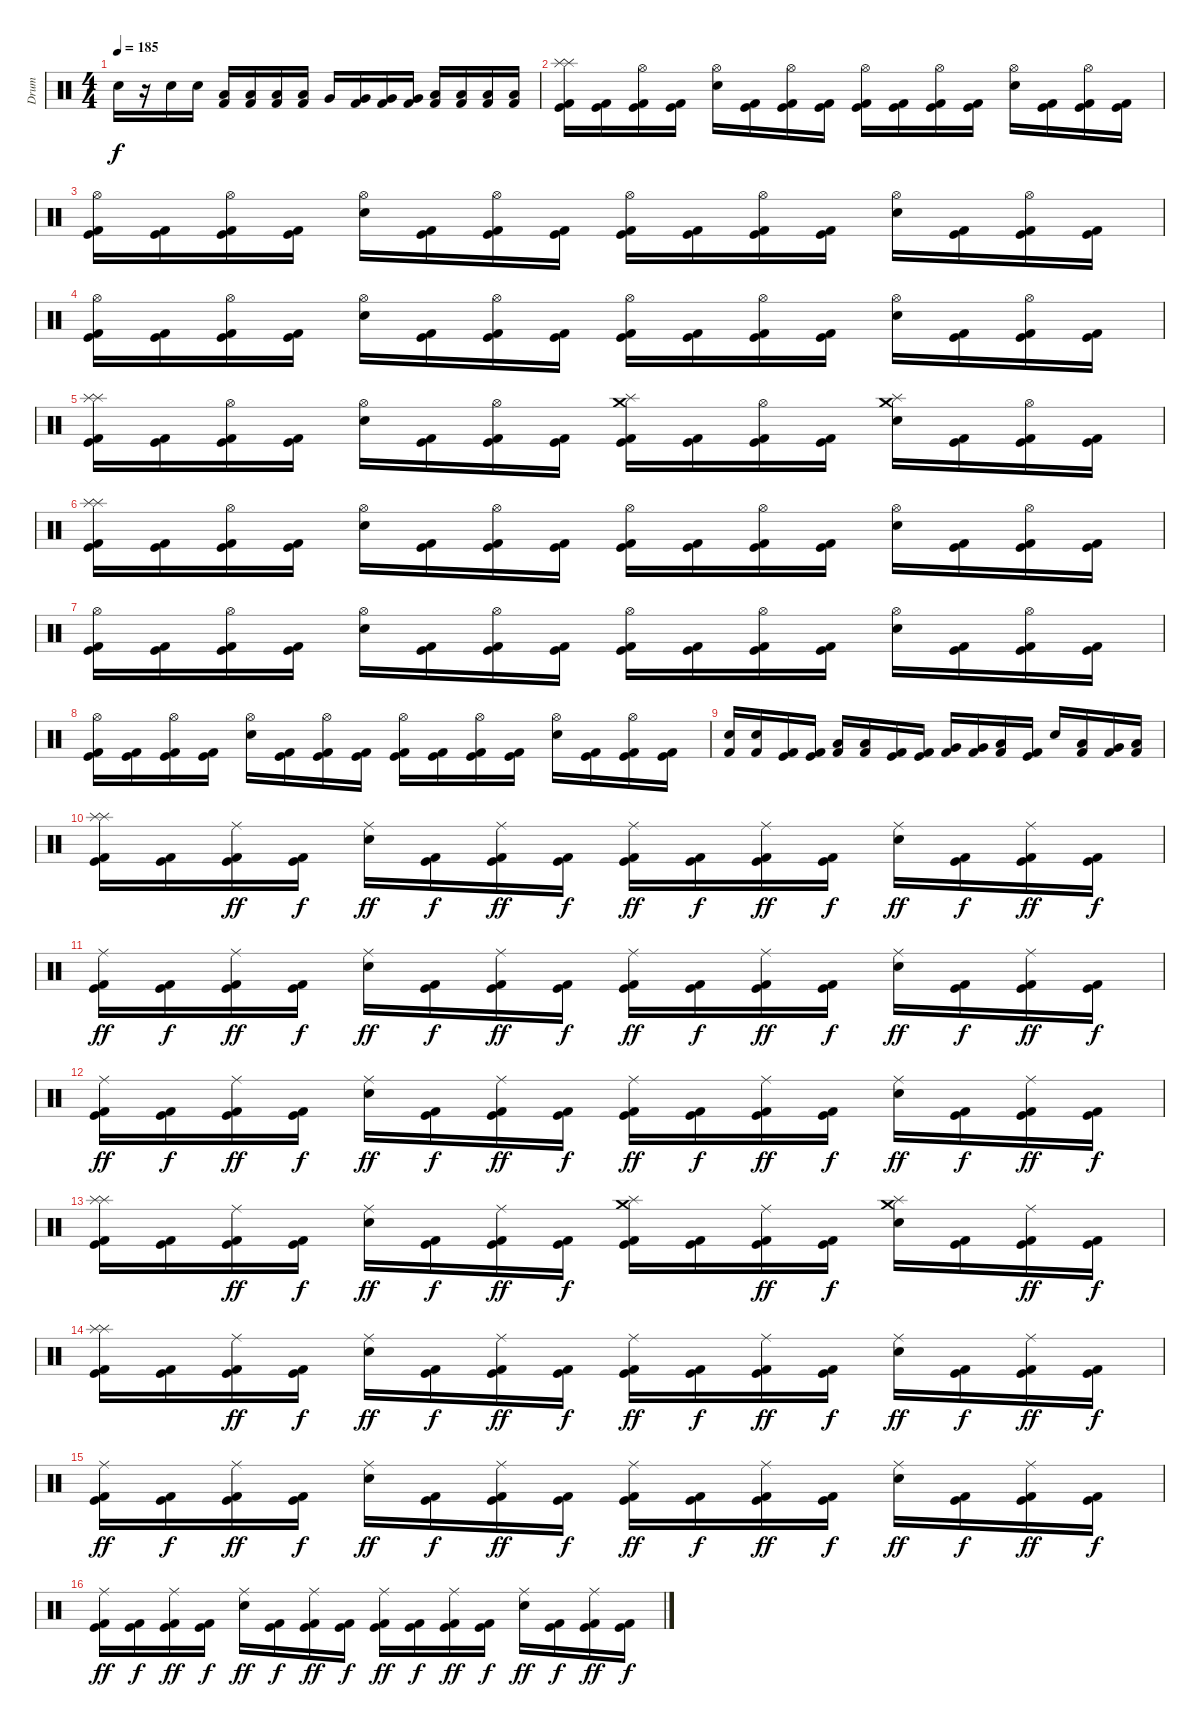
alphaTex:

\track ("Drum" "Drum") {instrument percussion}
\staff {score}
\articulation defaults
\ts (4 4)
\tempo 185
\clef neutral
\ks c "Snare (hit) 2".16{dy f}
r.16 "Snare (hit) 2".16 "Snare (hit) 2".16 ("Low Tom (hit)" "Kick (hit) 2").16 ("Low Tom (hit)" "Kick (hit) 2").16 ("Low Tom (hit)" "Kick (hit) 2").16 ("Low Tom (hit)" "Kick (hit) 2").16 "Very Low Tom (hit)".16 ("Very Low Tom (hit)" "Kick (hit) 2").16 ("Very Low Tom (hit)" "Kick (hit) 2").16 ("Very Low Tom (hit)" "Kick (hit) 2").16 ("Low Floor Tom (hit)" "Kick (hit) 2").16 ("Low Floor Tom (hit)" "Kick (hit) 2").16 ("Low Floor Tom (hit)" "Kick (hit) 2").16 ("Low Floor Tom (hit)" "Kick (hit) 2").16 |
("Splash (hit)" "Splash (hit)" "Kick (hit)" "Kick (hit) 2").16 ("Kick (hit)" "Kick (hit) 2").16 ("Hi-Hat (open)" "Kick (hit)" "Kick (hit) 2").16 ("Kick (hit)" "Kick (hit) 2").16 ("Hi-Hat (open)" "Snare (hit) 2").16 ("Kick (hit)" "Kick (hit) 2").16 ("Hi-Hat (open)" "Kick (hit)" "Kick (hit) 2").16 ("Kick (hit)" "Kick (hit) 2").16 ("Hi-Hat (open)" "Kick (hit)" "Kick (hit) 2").16 ("Kick (hit)" "Kick (hit) 2").16 ("Hi-Hat (open)" "Kick (hit)" "Kick (hit) 2").16 ("Kick (hit)" "Kick (hit) 2").16 ("Hi-Hat (open)" "Snare (hit) 2").16 ("Kick (hit)" "Kick (hit) 2").16 ("Hi-Hat (open)" "Kick (hit)" "Kick (hit) 2").16 ("Kick (hit)" "Kick (hit) 2").16 |
("Hi-Hat (open)" "Kick (hit)" "Kick (hit) 2").16 ("Kick (hit)" "Kick (hit) 2").16 ("Hi-Hat (open)" "Kick (hit)" "Kick (hit) 2").16 ("Kick (hit)" "Kick (hit) 2").16 ("Hi-Hat (open)" "Snare (hit) 2").16 ("Kick (hit)" "Kick (hit) 2").16 ("Hi-Hat (open)" "Kick (hit)" "Kick (hit) 2").16 ("Kick (hit)" "Kick (hit) 2").16 ("Hi-Hat (open)" "Kick (hit)" "Kick (hit) 2").16 ("Kick (hit)" "Kick (hit) 2").16 ("Hi-Hat (open)" "Kick (hit)" "Kick (hit) 2").16 ("Kick (hit)" "Kick (hit) 2").16 ("Hi-Hat (open)" "Snare (hit) 2").16 ("Kick (hit)" "Kick (hit) 2").16 ("Hi-Hat (open)" "Kick (hit)" "Kick (hit) 2").16 ("Kick (hit)" "Kick (hit) 2").16 |
("Hi-Hat (open)" "Kick (hit)" "Kick (hit) 2").16 ("Kick (hit)" "Kick (hit) 2").16 ("Hi-Hat (open)" "Kick (hit)" "Kick (hit) 2").16 ("Kick (hit)" "Kick (hit) 2").16 ("Hi-Hat (open)" "Snare (hit) 2").16 ("Kick (hit)" "Kick (hit) 2").16 ("Hi-Hat (open)" "Kick (hit)" "Kick (hit) 2").16 ("Kick (hit)" "Kick (hit) 2").16 ("Hi-Hat (open)" "Kick (hit)" "Kick (hit) 2").16 ("Kick (hit)" "Kick (hit) 2").16 ("Hi-Hat (open)" "Kick (hit)" "Kick (hit) 2").16 ("Kick (hit)" "Kick (hit) 2").16 ("Hi-Hat (open)" "Snare (hit) 2").16 ("Kick (hit)" "Kick (hit) 2").16 ("Hi-Hat (open)" "Kick (hit)" "Kick (hit) 2").16 ("Kick (hit)" "Kick (hit) 2").16 |
("Splash (hit)" "Splash (hit)" "Kick (hit)" "Kick (hit) 2").16 ("Kick (hit)" "Kick (hit) 2").16 ("Hi-Hat (open)" "Kick (hit)" "Kick (hit) 2").16 ("Kick (hit)" "Kick (hit) 2").16 ("Hi-Hat (open)" "Snare (hit) 2").16 ("Kick (hit)" "Kick (hit) 2").16 ("Hi-Hat (open)" "Kick (hit)" "Kick (hit) 2").16 ("Kick (hit)" "Kick (hit) 2").16 ("Crash medium (hit)" "Splash (hit)" "Kick (hit)" "Kick (hit) 2").16 ("Kick (hit)" "Kick (hit) 2").16 ("Hi-Hat (open)" "Kick (hit)" "Kick (hit) 2").16 ("Kick (hit)" "Kick (hit) 2").16 ("Crash medium (hit)" "Splash (hit)" "Snare (hit) 2").16 ("Kick (hit)" "Kick (hit) 2").16 ("Hi-Hat (open)" "Kick (hit)" "Kick (hit) 2").16 ("Kick (hit)" "Kick (hit) 2").16 |
("Splash (hit)" "Splash (hit)" "Kick (hit)" "Kick (hit) 2").16 ("Kick (hit)" "Kick (hit) 2").16 ("Hi-Hat (open)" "Kick (hit)" "Kick (hit) 2").16 ("Kick (hit)" "Kick (hit) 2").16 ("Hi-Hat (open)" "Snare (hit) 2").16 ("Kick (hit)" "Kick (hit) 2").16 ("Hi-Hat (open)" "Kick (hit)" "Kick (hit) 2").16 ("Kick (hit)" "Kick (hit) 2").16 ("Hi-Hat (open)" "Kick (hit)" "Kick (hit) 2").16 ("Kick (hit)" "Kick (hit) 2").16 ("Hi-Hat (open)" "Kick (hit)" "Kick (hit) 2").16 ("Kick (hit)" "Kick (hit) 2").16 ("Hi-Hat (open)" "Snare (hit) 2").16 ("Kick (hit)" "Kick (hit) 2").16 ("Hi-Hat (open)" "Kick (hit)" "Kick (hit) 2").16 ("Kick (hit)" "Kick (hit) 2").16 |
("Hi-Hat (open)" "Kick (hit)" "Kick (hit) 2").16 ("Kick (hit)" "Kick (hit) 2").16 ("Hi-Hat (open)" "Kick (hit)" "Kick (hit) 2").16 ("Kick (hit)" "Kick (hit) 2").16 ("Hi-Hat (open)" "Snare (hit) 2").16 ("Kick (hit)" "Kick (hit) 2").16 ("Hi-Hat (open)" "Kick (hit)" "Kick (hit) 2").16 ("Kick (hit)" "Kick (hit) 2").16 ("Hi-Hat (open)" "Kick (hit)" "Kick (hit) 2").16 ("Kick (hit)" "Kick (hit) 2").16 ("Hi-Hat (open)" "Kick (hit)" "Kick (hit) 2").16 ("Kick (hit)" "Kick (hit) 2").16 ("Hi-Hat (open)" "Snare (hit) 2").16 ("Kick (hit)" "Kick (hit) 2").16 ("Hi-Hat (open)" "Kick (hit)" "Kick (hit) 2").16 ("Kick (hit)" "Kick (hit) 2").16 |
("Hi-Hat (open)" "Kick (hit)" "Kick (hit) 2").16 ("Kick (hit)" "Kick (hit) 2").16 ("Hi-Hat (open)" "Kick (hit)" "Kick (hit) 2").16 ("Kick (hit)" "Kick (hit) 2").16 ("Hi-Hat (open)" "Snare (hit) 2").16 ("Kick (hit)" "Kick (hit) 2").16 ("Hi-Hat (open)" "Kick (hit)" "Kick (hit) 2").16 ("Kick (hit)" "Kick (hit) 2").16 ("Hi-Hat (open)" "Kick (hit)" "Kick (hit) 2").16 ("Kick (hit)" "Kick (hit) 2").16 ("Hi-Hat (open)" "Kick (hit)" "Kick (hit) 2").16 ("Kick (hit)" "Kick (hit) 2").16 ("Hi-Hat (open)" "Snare (hit) 2").16 ("Kick (hit)" "Kick (hit) 2").16 ("Hi-Hat (open)" "Kick (hit)" "Kick (hit) 2").16 ("Kick (hit)" "Kick (hit) 2").16 |
("Snare (hit) 2" "Kick (hit) 2").16 ("Snare (hit) 2" "Kick (hit) 2").16 ("Kick (hit)" "Kick (hit) 2").16 ("Kick (hit)" "Kick (hit) 2").16 ("Low Tom (hit)" "Kick (hit) 2").16 ("Low Tom (hit)" "Kick (hit) 2").16 ("Kick (hit)" "Kick (hit) 2").16 ("Kick (hit)" "Kick (hit) 2").16 ("Very Low Tom (hit)" "Kick (hit) 2").16 ("Very Low Tom (hit)" "Kick (hit) 2").16 ("Low Floor Tom (hit)" "Kick (hit) 2").16 ("Kick (hit)" "Kick (hit) 2").16 "Snare (hit) 2".16 ("Low Tom (hit)" "Kick (hit) 2").16 ("Very Low Tom (hit)" "Kick (hit) 2").16 ("Low Floor Tom (hit)" "Kick (hit) 2").16 |
("Splash (hit)" "Splash (hit)" "Kick (hit)" "Kick (hit) 2").16 ("Kick (hit)" "Kick (hit) 2").16 ("Ride (middle)" "Kick (hit)" "Kick (hit) 2").16{dy ff} ("Kick (hit)" "Kick (hit) 2").16{dy f} ("Ride (middle)" "Snare (hit) 2").16{dy ff} ("Kick (hit)" "Kick (hit) 2").16{dy f} ("Ride (middle)" "Kick (hit)" "Kick (hit) 2").16{dy ff} ("Kick (hit)" "Kick (hit) 2").16{dy f} ("Ride (middle)" "Kick (hit)" "Kick (hit) 2").16{dy ff} ("Kick (hit)" "Kick (hit) 2").16{dy f} ("Ride (middle)" "Kick (hit)" "Kick (hit) 2").16{dy ff} ("Kick (hit)" "Kick (hit) 2").16{dy f} ("Ride (middle)" "Snare (hit) 2").16{dy ff} ("Kick (hit)" "Kick (hit) 2").16{dy f} ("Ride (middle)" "Kick (hit)" "Kick (hit) 2").16{dy ff} ("Kick (hit)" "Kick (hit) 2").16{dy f} |
("Ride (middle)" "Kick (hit)" "Kick (hit) 2").16{dy ff} ("Kick (hit)" "Kick (hit) 2").16{dy f} ("Ride (middle)" "Kick (hit)" "Kick (hit) 2").16{dy ff} ("Kick (hit)" "Kick (hit) 2").16{dy f} ("Ride (middle)" "Snare (hit) 2").16{dy ff} ("Kick (hit)" "Kick (hit) 2").16{dy f} ("Ride (middle)" "Kick (hit)" "Kick (hit) 2").16{dy ff} ("Kick (hit)" "Kick (hit) 2").16{dy f} ("Ride (middle)" "Kick (hit)" "Kick (hit) 2").16{dy ff} ("Kick (hit)" "Kick (hit) 2").16{dy f} ("Ride (middle)" "Kick (hit)" "Kick (hit) 2").16{dy ff} ("Kick (hit)" "Kick (hit) 2").16{dy f} ("Ride (middle)" "Snare (hit) 2").16{dy ff} ("Kick (hit)" "Kick (hit) 2").16{dy f} ("Ride (middle)" "Kick (hit)" "Kick (hit) 2").16{dy ff} ("Kick (hit)" "Kick (hit) 2").16{dy f} |
("Ride (middle)" "Kick (hit)" "Kick (hit) 2").16{dy ff} ("Kick (hit)" "Kick (hit) 2").16{dy f} ("Ride (middle)" "Kick (hit)" "Kick (hit) 2").16{dy ff} ("Kick (hit)" "Kick (hit) 2").16{dy f} ("Ride (middle)" "Snare (hit) 2").16{dy ff} ("Kick (hit)" "Kick (hit) 2").16{dy f} ("Ride (middle)" "Kick (hit)" "Kick (hit) 2").16{dy ff} ("Kick (hit)" "Kick (hit) 2").16{dy f} ("Ride (middle)" "Kick (hit)" "Kick (hit) 2").16{dy ff} ("Kick (hit)" "Kick (hit) 2").16{dy f} ("Ride (middle)" "Kick (hit)" "Kick (hit) 2").16{dy ff} ("Kick (hit)" "Kick (hit) 2").16{dy f} ("Ride (middle)" "Snare (hit) 2").16{dy ff} ("Kick (hit)" "Kick (hit) 2").16{dy f} ("Ride (middle)" "Kick (hit)" "Kick (hit) 2").16{dy ff} ("Kick (hit)" "Kick (hit) 2").16{dy f} |
("Splash (hit)" "Splash (hit)" "Kick (hit)" "Kick (hit) 2").16 ("Kick (hit)" "Kick (hit) 2").16 ("Ride (middle)" "Kick (hit)" "Kick (hit) 2").16{dy ff} ("Kick (hit)" "Kick (hit) 2").16{dy f} ("Ride (middle)" "Snare (hit) 2").16{dy ff} ("Kick (hit)" "Kick (hit) 2").16{dy f} ("Ride (middle)" "Kick (hit)" "Kick (hit) 2").16{dy ff} ("Kick (hit)" "Kick (hit) 2").16{dy f} ("Crash medium (hit)" "Splash (hit)" "Kick (hit)" "Kick (hit) 2").16 ("Kick (hit)" "Kick (hit) 2").16 ("Ride (middle)" "Kick (hit)" "Kick (hit) 2").16{dy ff} ("Kick (hit)" "Kick (hit) 2").16{dy f} ("Crash medium (hit)" "Splash (hit)" "Snare (hit) 2").16 ("Kick (hit)" "Kick (hit) 2").16 ("Ride (middle)" "Kick (hit)" "Kick (hit) 2").16{dy ff} ("Kick (hit)" "Kick (hit) 2").16{dy f} |
("Splash (hit)" "Splash (hit)" "Kick (hit)" "Kick (hit) 2").16 ("Kick (hit)" "Kick (hit) 2").16 ("Ride (middle)" "Kick (hit)" "Kick (hit) 2").16{dy ff} ("Kick (hit)" "Kick (hit) 2").16{dy f} ("Ride (middle)" "Snare (hit) 2").16{dy ff} ("Kick (hit)" "Kick (hit) 2").16{dy f} ("Ride (middle)" "Kick (hit)" "Kick (hit) 2").16{dy ff} ("Kick (hit)" "Kick (hit) 2").16{dy f} ("Ride (middle)" "Kick (hit)" "Kick (hit) 2").16{dy ff} ("Kick (hit)" "Kick (hit) 2").16{dy f} ("Ride (middle)" "Kick (hit)" "Kick (hit) 2").16{dy ff} ("Kick (hit)" "Kick (hit) 2").16{dy f} ("Ride (middle)" "Snare (hit) 2").16{dy ff} ("Kick (hit)" "Kick (hit) 2").16{dy f} ("Ride (middle)" "Kick (hit)" "Kick (hit) 2").16{dy ff} ("Kick (hit)" "Kick (hit) 2").16{dy f} |
("Ride (middle)" "Kick (hit)" "Kick (hit) 2").16{dy ff} ("Kick (hit)" "Kick (hit) 2").16{dy f} ("Ride (middle)" "Kick (hit)" "Kick (hit) 2").16{dy ff} ("Kick (hit)" "Kick (hit) 2").16{dy f} ("Ride (middle)" "Snare (hit) 2").16{dy ff} ("Kick (hit)" "Kick (hit) 2").16{dy f} ("Ride (middle)" "Kick (hit)" "Kick (hit) 2").16{dy ff} ("Kick (hit)" "Kick (hit) 2").16{dy f} ("Ride (middle)" "Kick (hit)" "Kick (hit) 2").16{dy ff} ("Kick (hit)" "Kick (hit) 2").16{dy f} ("Ride (middle)" "Kick (hit)" "Kick (hit) 2").16{dy ff} ("Kick (hit)" "Kick (hit) 2").16{dy f} ("Ride (middle)" "Snare (hit) 2").16{dy ff} ("Kick (hit)" "Kick (hit) 2").16{dy f} ("Ride (middle)" "Kick (hit)" "Kick (hit) 2").16{dy ff} ("Kick (hit)" "Kick (hit) 2").16{dy f} |
("Ride (middle)" "Kick (hit)" "Kick (hit) 2").16{dy ff} ("Kick (hit)" "Kick (hit) 2").16{dy f} ("Ride (middle)" "Kick (hit)" "Kick (hit) 2").16{dy ff} ("Kick (hit)" "Kick (hit) 2").16{dy f} ("Ride (middle)" "Snare (hit) 2").16{dy ff} ("Kick (hit)" "Kick (hit) 2").16{dy f} ("Ride (middle)" "Kick (hit)" "Kick (hit) 2").16{dy ff} ("Kick (hit)" "Kick (hit) 2").16{dy f} ("Ride (middle)" "Kick (hit)" "Kick (hit) 2").16{dy ff} ("Kick (hit)" "Kick (hit) 2").16{dy f} ("Ride (middle)" "Kick (hit)" "Kick (hit) 2").16{dy ff} ("Kick (hit)" "Kick (hit) 2").16{dy f} ("Ride (middle)" "Snare (hit) 2").16{dy ff} ("Kick (hit)" "Kick (hit) 2").16{dy f} ("Ride (middle)" "Kick (hit)" "Kick (hit) 2").16{dy ff} ("Kick (hit)" "Kick (hit) 2").16{dy f}
